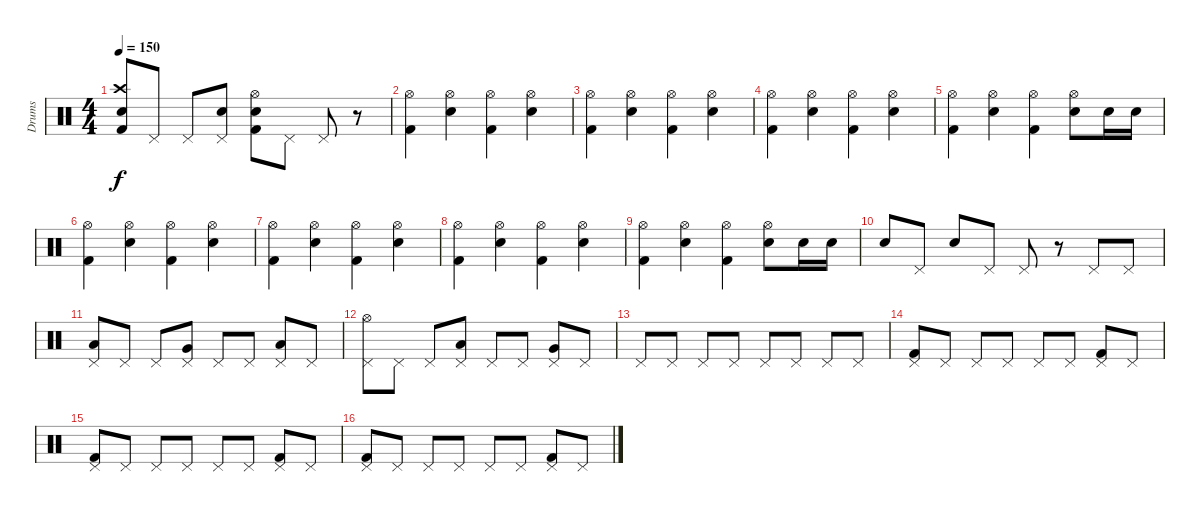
\track ("Drums" "Drums") {instrument percussion}
\staff {score}
\articulation defaults
\ts (4 4)
\tempo 150
\clef neutral
\ks c
("Snare (hit) 2" "Crash high (hit)" "Kick (hit) 2").8{dy f} "Pedal Hi-Hat (hit)".8 "Pedal Hi-Hat (hit)".8 ("Pedal Hi-Hat (hit)" "Snare (hit) 2").8 ("Snare (hit) 2" "Hi-Hat (open)" "Kick (hit) 2").8 "Pedal Hi-Hat (hit)".8 "Pedal Hi-Hat (hit)".8 r.8 |
("Hi-Hat (open)" "Kick (hit) 2").4 ("Hi-Hat (open)" "Snare (hit) 2").4 ("Hi-Hat (open)" "Kick (hit) 2").4 ("Hi-Hat (open)" "Snare (hit) 2").4 |
("Hi-Hat (open)" "Kick (hit) 2").4 ("Hi-Hat (open)" "Snare (hit) 2").4 ("Hi-Hat (open)" "Kick (hit) 2").4 ("Hi-Hat (open)" "Snare (hit) 2").4 |
("Hi-Hat (open)" "Kick (hit) 2").4 ("Hi-Hat (open)" "Snare (hit) 2").4 ("Hi-Hat (open)" "Kick (hit) 2").4 ("Hi-Hat (open)" "Snare (hit) 2").4 |
("Hi-Hat (open)" "Kick (hit) 2").4 ("Hi-Hat (open)" "Snare (hit) 2").4 ("Hi-Hat (open)" "Kick (hit) 2").4 ("Hi-Hat (open)" "Snare (hit) 2").8 "Snare (hit) 2".16 "Snare (hit) 2".16 |
("Hi-Hat (open)" "Kick (hit) 2").4 ("Hi-Hat (open)" "Snare (hit) 2").4 ("Hi-Hat (open)" "Kick (hit) 2").4 ("Hi-Hat (open)" "Snare (hit) 2").4 |
("Hi-Hat (open)" "Kick (hit) 2").4 ("Hi-Hat (open)" "Snare (hit) 2").4 ("Hi-Hat (open)" "Kick (hit) 2").4 ("Hi-Hat (open)" "Snare (hit) 2").4 |
("Hi-Hat (open)" "Kick (hit) 2").4 ("Hi-Hat (open)" "Snare (hit) 2").4 ("Hi-Hat (open)" "Kick (hit) 2").4 ("Hi-Hat (open)" "Snare (hit) 2").4 |
("Hi-Hat (open)" "Kick (hit) 2").4 ("Hi-Hat (open)" "Snare (hit) 2").4 ("Hi-Hat (open)" "Kick (hit) 2").4 ("Hi-Hat (open)" "Snare (hit) 2").8 "Snare (hit) 2".16 "Snare (hit) 2".16 |
"Snare (hit) 2".8 "Pedal Hi-Hat (hit)".8 "Electric Snare (hit)".8 "Pedal Hi-Hat (hit)".8 "Pedal Hi-Hat (hit)".8 r.8 "Pedal Hi-Hat (hit)".8 "Pedal Hi-Hat (hit)".8 |
("Low Tom (hit)" "Pedal Hi-Hat (hit)").8 "Pedal Hi-Hat (hit)".8 "Pedal Hi-Hat (hit)".8 ("Very Low Tom (hit)" "Pedal Hi-Hat (hit)").8 "Pedal Hi-Hat (hit)".8 "Pedal Hi-Hat (hit)".8 ("Low Floor Tom (hit)" "Pedal Hi-Hat (hit)").8 "Pedal Hi-Hat (hit)".8 |
("Hi-Hat (open)" "Pedal Hi-Hat (hit)").8 "Pedal Hi-Hat (hit)".8 "Pedal Hi-Hat (hit)".8 ("Low Tom (hit)" "Pedal Hi-Hat (hit)").8 "Pedal Hi-Hat (hit)".8 "Pedal Hi-Hat (hit)".8 ("Very Low Tom (hit)" "Pedal Hi-Hat (hit)").8 "Pedal Hi-Hat (hit)".8 |
"Pedal Hi-Hat (hit)".8 "Pedal Hi-Hat (hit)".8 "Pedal Hi-Hat (hit)".8 "Pedal Hi-Hat (hit)".8 "Pedal Hi-Hat (hit)".8 "Pedal Hi-Hat (hit)".8 "Pedal Hi-Hat (hit)".8 "Pedal Hi-Hat (hit)".8 |
("Kick (hit) 2" "Pedal Hi-Hat (hit)").8 "Pedal Hi-Hat (hit)".8 "Pedal Hi-Hat (hit)".8 "Pedal Hi-Hat (hit)".8 "Pedal Hi-Hat (hit)".8 "Pedal Hi-Hat (hit)".8 ("Kick (hit) 2" "Pedal Hi-Hat (hit)").8 "Pedal Hi-Hat (hit)".8 |
("Kick (hit) 2" "Pedal Hi-Hat (hit)").8 "Pedal Hi-Hat (hit)".8 "Pedal Hi-Hat (hit)".8 "Pedal Hi-Hat (hit)".8 "Pedal Hi-Hat (hit)".8 "Pedal Hi-Hat (hit)".8 ("Kick (hit) 2" "Pedal Hi-Hat (hit)").8 "Pedal Hi-Hat (hit)".8 |
("Kick (hit) 2" "Pedal Hi-Hat (hit)").8 "Pedal Hi-Hat (hit)".8 "Pedal Hi-Hat (hit)".8 "Pedal Hi-Hat (hit)".8 "Pedal Hi-Hat (hit)".8 "Pedal Hi-Hat (hit)".8 ("Kick (hit) 2" "Pedal Hi-Hat (hit)").8 "Pedal Hi-Hat (hit)".8
